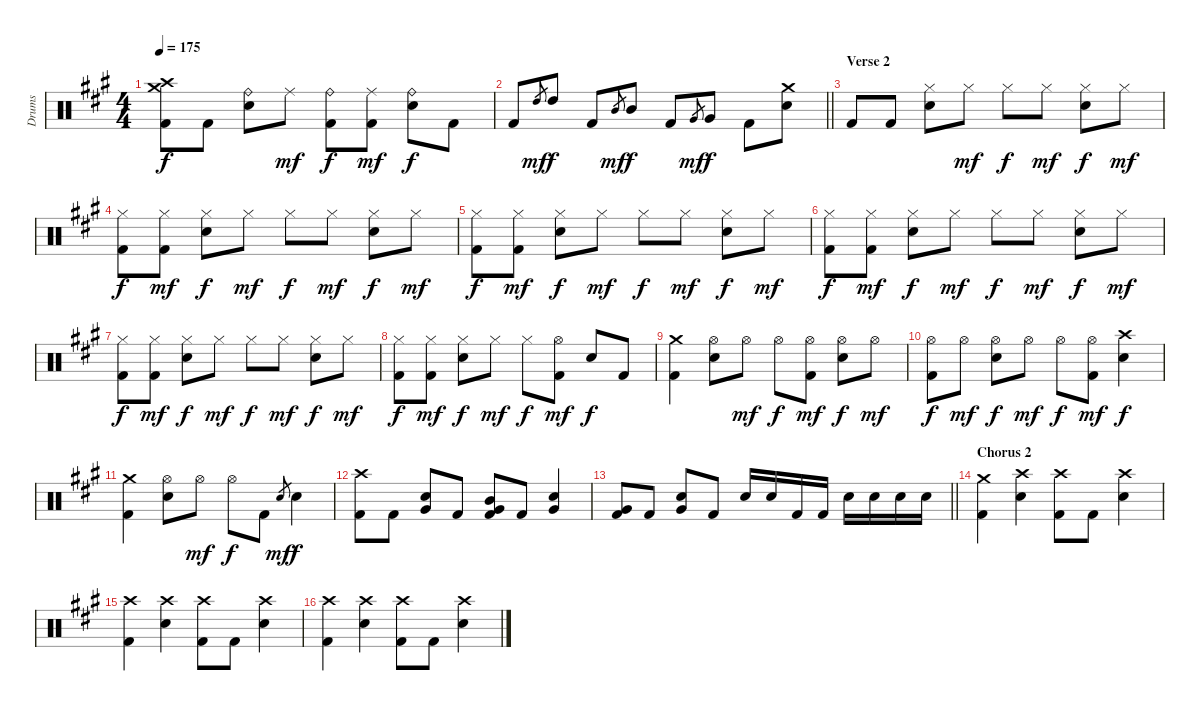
\track ("Drums" "Drums") {instrument percussion}
\staff {score}
\articulation defaults
\ts (4 4)
\tempo 175
\clef neutral
\ks f#minor
("Crash high (hit)" "Crash medium (hit)" "Kick (hit) 2").8{dy f} "Kick (hit) 2".8 ("Ride (bell)" "Electric Snare (hit)").8 "Ride (middle)".8{dy mf} ("Ride (bell)" "Kick (hit) 2").8{dy f} ("Ride (middle)" "Kick (hit) 2").8{dy mf} ("Ride (bell)" "Electric Snare (hit)").8{dy f} "Kick (hit) 2".8 |
\barLineRight lightlight "Kick (hit) 2".8 "High Tom (hit)".8{gr dy mf} "High Tom (hit)".8{dy f} "Kick (hit) 2".8 "Mid Tom (hit)".8{gr dy mf} "Mid Tom (hit)".8{dy f} "Kick (hit) 2".8 "Very Low Tom (hit)".8{gr dy mf} "Very Low Tom (hit)".8{dy f} "Kick (hit) 2".8
("Crash medium (hit)" "Electric Snare (hit)").8 |
\section ("" "Verse 2")
"Kick (hit) 2".8 "Kick (hit) 2".8 ("Hi-Hat (closed)" "Electric Snare (hit)").8 "Hi-Hat (closed)".8{dy mf} "Hi-Hat (closed)".8{dy f} "Hi-Hat (closed)".8{dy mf} ("Hi-Hat (closed)" "Electric Snare (hit)").8{dy f} "Hi-Hat (closed)".8{dy mf} |
("Hi-Hat (closed)" "Kick (hit) 2").8{dy f} ("Hi-Hat (closed)" "Kick (hit) 2").8{dy mf} ("Hi-Hat (closed)" "Electric Snare (hit)").8{dy f} "Hi-Hat (closed)".8{dy mf} "Hi-Hat (closed)".8{dy f} "Hi-Hat (closed)".8{dy mf} ("Hi-Hat (closed)" "Electric Snare (hit)").8{dy f} "Hi-Hat (closed)".8{dy mf} |
("Hi-Hat (closed)" "Kick (hit) 2").8{dy f} ("Hi-Hat (closed)" "Kick (hit) 2").8{dy mf} ("Hi-Hat (closed)" "Electric Snare (hit)").8{dy f} "Hi-Hat (closed)".8{dy mf} "Hi-Hat (closed)".8{dy f} "Hi-Hat (closed)".8{dy mf} ("Hi-Hat (closed)" "Electric Snare (hit)").8{dy f} "Hi-Hat (closed)".8{dy mf} |
("Hi-Hat (closed)" "Kick (hit) 2").8{dy f} ("Hi-Hat (closed)" "Kick (hit) 2").8{dy mf} ("Hi-Hat (closed)" "Electric Snare (hit)").8{dy f} "Hi-Hat (closed)".8{dy mf} "Hi-Hat (closed)".8{dy f} "Hi-Hat (closed)".8{dy mf} ("Hi-Hat (closed)" "Electric Snare (hit)").8{dy f} "Hi-Hat (closed)".8{dy mf} |
("Hi-Hat (closed)" "Kick (hit) 2").8{dy f} ("Hi-Hat (closed)" "Kick (hit) 2").8{dy mf} ("Hi-Hat (closed)" "Electric Snare (hit)").8{dy f} "Hi-Hat (closed)".8{dy mf} "Hi-Hat (closed)".8{dy f} "Hi-Hat (closed)".8{dy mf} ("Hi-Hat (closed)" "Electric Snare (hit)").8{dy f} "Hi-Hat (closed)".8{dy mf} |
("Hi-Hat (closed)" "Kick (hit) 2").8{dy f} ("Hi-Hat (closed)" "Kick (hit) 2").8{dy mf} ("Hi-Hat (closed)" "Electric Snare (hit)").8{dy f} "Hi-Hat (closed)".8{dy mf} "Hi-Hat (closed)".8{dy f} ("Hi-Hat (open)" "Kick (hit) 2").8{dy mf} "Electric Snare (hit)".8{dy f} "Kick (hit) 2".8 |
("Crash medium (hit)" "Kick (hit) 2").4 ("Hi-Hat (open)" "Electric Snare (hit)").8 "Hi-Hat (open)".8{dy mf} "Hi-Hat (open)".8{dy f} ("Hi-Hat (open)" "Kick (hit) 2").8{dy mf} ("Hi-Hat (open)" "Electric Snare (hit)").8{dy f} "Hi-Hat (open)".8{dy mf} |
("Hi-Hat (open)" "Kick (hit) 2").8{dy f} "Hi-Hat (open)".8{dy mf} ("Hi-Hat (open)" "Electric Snare (hit)").8{dy f} "Hi-Hat (open)".8{dy mf} "Hi-Hat (open)".8{dy f} ("Hi-Hat (open)" "Kick (hit) 2").8{dy mf} ("Crash high (hit)" "Electric Snare (hit)").4{dy f} |
("Crash medium (hit)" "Kick (hit) 2").4 ("Hi-Hat (open)" "Electric Snare (hit)").8 "Hi-Hat (open)".8{dy mf} "Hi-Hat (open)".8{dy f} "Kick (hit) 2".8 "Electric Snare (hit)".8{gr dy mf} "Electric Snare (hit)".4{dy f} |
("Crash high (hit)" "Kick (hit) 2").8 "Kick (hit) 2".8 ("Electric Snare (hit)" "Very Low Tom (hit)").8 "Kick (hit) 2".8 ("Mid Tom (hit)" "Very Low Tom (hit)" "Kick (hit) 2").8 "Kick (hit) 2".8 ("Electric Snare (hit)" "Very Low Tom (hit)").4 |
\barLineRight lightlight
("Very Low Tom (hit)" "Kick (hit) 2").8 "Kick (hit) 2".8 ("Electric Snare (hit)" "Very Low Tom (hit)").8 "Kick (hit) 2".8 "Electric Snare (hit)".16 "Electric Snare (hit)".16 "Kick (hit) 2".16 "Kick (hit) 2".16 "Electric Snare (hit)".16 "Electric Snare (hit)".16 "Electric Snare (hit)".16 "Electric Snare (hit)".16 |
\section ("" "Chorus 2")
("Crash medium (hit)" "Kick (hit) 2").4 ("Crash high (hit)" "Electric Snare (hit)").4 ("Crash high (hit)" "Kick (hit) 2").8 "Kick (hit) 2".8 ("Crash high (hit)" "Electric Snare (hit)").4 |
("Crash high (hit)" "Kick (hit) 2").4 ("Crash high (hit)" "Electric Snare (hit)").4 ("Crash high (hit)" "Kick (hit) 2").8 "Kick (hit) 2".8 ("Crash high (hit)" "Electric Snare (hit)").4 |
("Crash high (hit)" "Kick (hit) 2").4 ("Crash high (hit)" "Electric Snare (hit)").4 ("Crash high (hit)" "Kick (hit) 2").8 "Kick (hit) 2".8 ("Crash high (hit)" "Electric Snare (hit)").4
